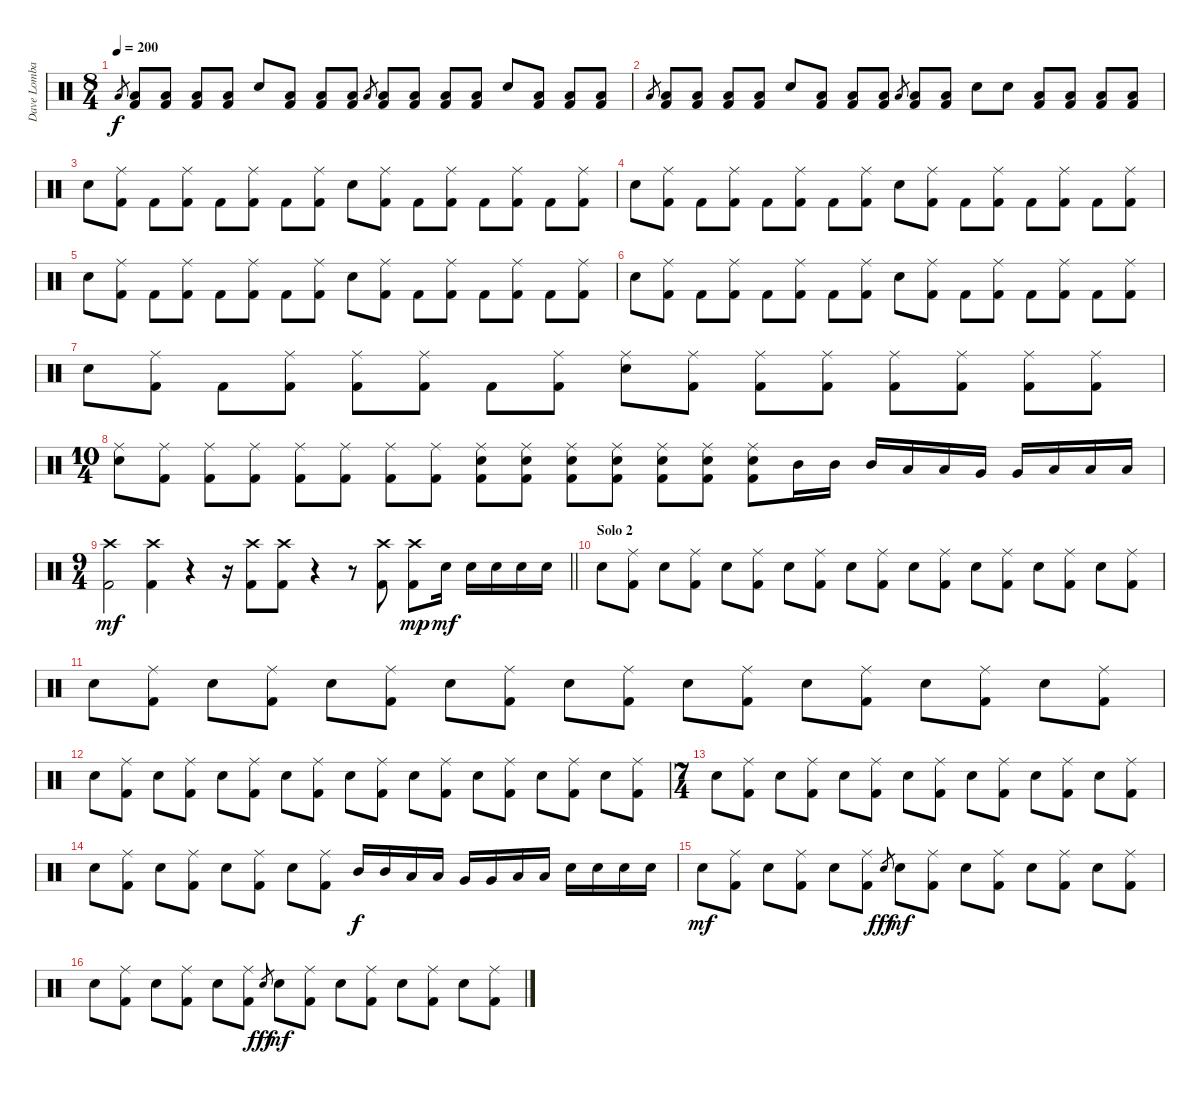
\track ("Dave Lombardo" "Dave Lomba") {instrument percussion}
\staff {score}
\articulation defaults
\ts (8 4)
\tempo 200
\clef neutral
\ks c "Low Floor Tom (hit)".8{gr dy f}
("Low Floor Tom (hit)" "Kick (hit) 2").8 ("Low Floor Tom (hit)" "Kick (hit) 2").8 ("Low Floor Tom (hit)" "Kick (hit) 2").8 ("Low Floor Tom (hit)" "Kick (hit) 2").8 "Electric Snare (hit)".8 ("Low Floor Tom (hit)" "Kick (hit) 2").8 ("Low Floor Tom (hit)" "Kick (hit) 2").8 ("Low Floor Tom (hit)" "Kick (hit) 2").8 "Low Floor Tom (hit)".8{gr} ("Low Floor Tom (hit)" "Kick (hit) 2").8 ("Low Floor Tom (hit)" "Kick (hit) 2").8 ("Low Floor Tom (hit)" "Kick (hit) 2").8 ("Low Floor Tom (hit)" "Kick (hit) 2").8 "Electric Snare (hit)".8 ("Low Floor Tom (hit)" "Kick (hit) 2").8 ("Low Floor Tom (hit)" "Kick (hit) 2").8 ("Low Floor Tom (hit)" "Kick (hit) 2").8 |
"Low Floor Tom (hit)".8{gr} ("Low Floor Tom (hit)" "Kick (hit) 2").8 ("Low Floor Tom (hit)" "Kick (hit) 2").8 ("Low Floor Tom (hit)" "Kick (hit) 2").8 ("Low Floor Tom (hit)" "Kick (hit) 2").8 "Electric Snare (hit)".8 ("Low Floor Tom (hit)" "Kick (hit) 2").8 ("Low Floor Tom (hit)" "Kick (hit) 2").8 ("Low Floor Tom (hit)" "Kick (hit) 2").8 "Low Floor Tom (hit)".8{gr} ("Low Floor Tom (hit)" "Kick (hit) 2").8 ("Low Floor Tom (hit)" "Kick (hit) 2").8 "Electric Snare (hit)".8 "Electric Snare (hit)".8 ("Low Floor Tom (hit)" "Kick (hit) 2").8 ("Low Floor Tom (hit)" "Kick (hit) 2").8 ("Low Floor Tom (hit)" "Kick (hit) 2").8 ("Low Floor Tom (hit)" "Kick (hit) 2").8 |
"Electric Snare (hit)".8 ("Ride (middle)" "Kick (hit) 2").8 "Kick (hit) 2".8 ("Ride (middle)" "Kick (hit) 2").8 "Kick (hit) 2".8 ("Ride (middle)" "Kick (hit) 2").8 "Kick (hit) 2".8 ("Ride (middle)" "Kick (hit) 2").8 "Electric Snare (hit)".8 ("Ride (middle)" "Kick (hit) 2").8 "Kick (hit) 2".8 ("Ride (middle)" "Kick (hit) 2").8 "Kick (hit) 2".8 ("Ride (middle)" "Kick (hit) 2").8 "Kick (hit) 2".8 ("Ride (middle)" "Kick (hit) 2").8 |
"Electric Snare (hit)".8 ("Ride (middle)" "Kick (hit) 2").8 "Kick (hit) 2".8 ("Ride (middle)" "Kick (hit) 2").8 "Kick (hit) 2".8 ("Ride (middle)" "Kick (hit) 2").8 "Kick (hit) 2".8 ("Ride (middle)" "Kick (hit) 2").8 "Electric Snare (hit)".8 ("Ride (middle)" "Kick (hit) 2").8 "Kick (hit) 2".8 ("Ride (middle)" "Kick (hit) 2").8 "Kick (hit) 2".8 ("Ride (middle)" "Kick (hit) 2").8 "Kick (hit) 2".8 ("Ride (middle)" "Kick (hit) 2").8 |
"Electric Snare (hit)".8 ("Ride (middle)" "Kick (hit) 2").8 "Kick (hit) 2".8 ("Ride (middle)" "Kick (hit) 2").8 "Kick (hit) 2".8 ("Ride (middle)" "Kick (hit) 2").8 "Kick (hit) 2".8 ("Ride (middle)" "Kick (hit) 2").8 "Electric Snare (hit)".8 ("Ride (middle)" "Kick (hit) 2").8 "Kick (hit) 2".8 ("Ride (middle)" "Kick (hit) 2").8 "Kick (hit) 2".8 ("Ride (middle)" "Kick (hit) 2").8 "Kick (hit) 2".8 ("Ride (middle)" "Kick (hit) 2").8 |
"Electric Snare (hit)".8 ("Ride (middle)" "Kick (hit) 2").8 "Kick (hit) 2".8 ("Ride (middle)" "Kick (hit) 2").8 "Kick (hit) 2".8 ("Ride (middle)" "Kick (hit) 2").8 "Kick (hit) 2".8 ("Ride (middle)" "Kick (hit) 2").8 "Electric Snare (hit)".8 ("Ride (middle)" "Kick (hit) 2").8 "Kick (hit) 2".8 ("Ride (middle)" "Kick (hit) 2").8 "Kick (hit) 2".8 ("Ride (middle)" "Kick (hit) 2").8 "Kick (hit) 2".8 ("Ride (middle)" "Kick (hit) 2").8 |
"Electric Snare (hit)".8 ("Ride (middle)" "Kick (hit) 2").8 "Kick (hit) 2".8 ("Ride (middle)" "Kick (hit) 2").8 ("Ride (middle)" "Kick (hit) 2").8 ("Ride (middle)" "Kick (hit) 2").8 "Kick (hit) 2".8 ("Ride (middle)" "Kick (hit) 2").8 ("Ride (middle)" "Electric Snare (hit)").8 ("Ride (middle)" "Kick (hit) 2").8 ("Ride (middle)" "Kick (hit) 2").8 ("Ride (middle)" "Kick (hit) 2").8 ("Ride (middle)" "Kick (hit) 2").8 ("Ride (middle)" "Kick (hit) 2").8 ("Ride (middle)" "Kick (hit) 2").8 ("Ride (middle)" "Kick (hit) 2").8 |
\ts (10 4)
("Ride (middle)" "Electric Snare (hit)").8 ("Ride (middle)" "Kick (hit) 2").8 ("Ride (middle)" "Kick (hit) 2").8 ("Ride (middle)" "Kick (hit) 2").8 ("Ride (middle)" "Kick (hit) 2").8 ("Ride (middle)" "Kick (hit) 2").8 ("Ride (middle)" "Kick (hit) 2").8 ("Ride (middle)" "Kick (hit) 2").8 ("Ride (middle)" "Electric Snare (hit)" "Kick (hit) 2").8 ("Ride (middle)" "Electric Snare (hit)" "Kick (hit) 2").8 ("Ride (middle)" "Electric Snare (hit)" "Kick (hit) 2").8 ("Ride (middle)" "Electric Snare (hit)" "Kick (hit) 2").8 ("Ride (middle)" "Electric Snare (hit)" "Kick (hit) 2").8 ("Ride (middle)" "Electric Snare (hit)" "Kick (hit) 2").8 ("Ride (middle)" "Electric Snare (hit)" "Kick (hit) 2").8 "Mid Tom (hit)".16 "Mid Tom (hit)".16 "Mid Tom (hit)".16 "Low Tom (hit)".16 "Low Tom (hit)".16 "Very Low Tom (hit)".16 "Very Low Tom (hit)".16 "Low Floor Tom (hit)".16 "Low Floor Tom (hit)".16 "Low Floor Tom (hit)".16 |
\ts (9 4)
\barLineRight lightlight
("Crash high (hit)" "Kick (hit) 2").2{dy mf} ("Crash high (hit)" "Kick (hit) 2").4 r.4 r.16 ("Crash high (hit)" "Kick (hit) 2").8 ("Crash high (hit)" "Kick (hit) 2").8 r.4 r.8 ("Crash high (hit)" "Kick (hit) 2").8 ("Crash high (hit)" "Kick (hit) 2").8{dy mp} "Snare (hit) 2".16{dy mf} "Snare (hit) 2".16 "Snare (hit) 2".16 "Snare (hit) 2".16 "Snare (hit) 2".16 |
\section ("" "Solo 2")
"Snare (hit) 2".8 ("Ride (middle)" "Kick (hit) 2").8 "Snare (hit) 2".8 ("Ride (middle)" "Kick (hit) 2").8 "Snare (hit) 2".8 ("Ride (middle)" "Kick (hit) 2").8 "Snare (hit) 2".8 ("Ride (middle)" "Kick (hit) 2").8 "Snare (hit) 2".8 ("Ride (middle)" "Kick (hit) 2").8 "Snare (hit) 2".8 ("Ride (middle)" "Kick (hit) 2").8 "Snare (hit) 2".8 ("Ride (middle)" "Kick (hit) 2").8 "Snare (hit) 2".8 ("Ride (middle)" "Kick (hit) 2").8 "Snare (hit) 2".8 ("Ride (middle)" "Kick (hit) 2").8 |
"Snare (hit) 2".8 ("Ride (middle)" "Kick (hit) 2").8 "Snare (hit) 2".8 ("Ride (middle)" "Kick (hit) 2").8 "Snare (hit) 2".8 ("Ride (middle)" "Kick (hit) 2").8 "Snare (hit) 2".8 ("Ride (middle)" "Kick (hit) 2").8 "Snare (hit) 2".8 ("Ride (middle)" "Kick (hit) 2").8 "Snare (hit) 2".8 ("Ride (middle)" "Kick (hit) 2").8 "Snare (hit) 2".8 ("Ride (middle)" "Kick (hit) 2").8 "Snare (hit) 2".8 ("Ride (middle)" "Kick (hit) 2").8 "Snare (hit) 2".8 ("Ride (middle)" "Kick (hit) 2").8 |
"Snare (hit) 2".8 ("Ride (middle)" "Kick (hit) 2").8 "Snare (hit) 2".8 ("Ride (middle)" "Kick (hit) 2").8 "Snare (hit) 2".8 ("Ride (middle)" "Kick (hit) 2").8 "Snare (hit) 2".8 ("Ride (middle)" "Kick (hit) 2").8 "Snare (hit) 2".8 ("Ride (middle)" "Kick (hit) 2").8 "Snare (hit) 2".8 ("Ride (middle)" "Kick (hit) 2").8 "Snare (hit) 2".8 ("Ride (middle)" "Kick (hit) 2").8 "Snare (hit) 2".8 ("Ride (middle)" "Kick (hit) 2").8 "Snare (hit) 2".8 ("Ride (middle)" "Kick (hit) 2").8 |
\ts (7 4)
"Snare (hit) 2".8 ("Ride (middle)" "Kick (hit) 2").8 "Snare (hit) 2".8 ("Ride (middle)" "Kick (hit) 2").8 "Snare (hit) 2".8 ("Ride (middle)" "Kick (hit) 2").8 "Snare (hit) 2".8 ("Ride (middle)" "Kick (hit) 2").8 "Snare (hit) 2".8 ("Ride (middle)" "Kick (hit) 2").8 "Snare (hit) 2".8 ("Ride (middle)" "Kick (hit) 2").8 "Snare (hit) 2".8 ("Ride (middle)" "Kick (hit) 2").8 |
"Snare (hit) 2".8 ("Ride (middle)" "Kick (hit) 2").8 "Snare (hit) 2".8 ("Ride (middle)" "Kick (hit) 2").8 "Snare (hit) 2".8 ("Ride (middle)" "Kick (hit) 2").8 "Snare (hit) 2".8 ("Ride (middle)" "Kick (hit) 2").8 "Mid Tom (hit)".16{dy f} "Mid Tom (hit)".16 "Low Tom (hit)".16 "Low Tom (hit)".16 "Very Low Tom (hit)".16 "Very Low Tom (hit)".16 "Low Floor Tom (hit)".16 "Low Floor Tom (hit)".16 "Electric Snare (hit)".16 "Electric Snare (hit)".16 "Snare (hit) 2".16 "Snare (hit) 2".16 |
"Snare (hit) 2".8{dy mf} ("Ride (middle)" "Kick (hit) 2").8 "Snare (hit) 2".8 ("Ride (middle)" "Kick (hit) 2").8 "Snare (hit) 2".8 ("Ride (middle)" "Kick (hit) 2").8 "Snare (hit) 2"{h}.8{gr dy fff} "Snare (hit) 2".8{dy mf} ("Ride (middle)" "Kick (hit) 2").8 "Snare (hit) 2".8 ("Ride (middle)" "Kick (hit) 2").8 "Snare (hit) 2".8 ("Ride (middle)" "Kick (hit) 2").8 "Snare (hit) 2".8 ("Ride (middle)" "Kick (hit) 2").8 |
"Snare (hit) 2".8 ("Ride (middle)" "Kick (hit) 2").8 "Snare (hit) 2".8 ("Ride (middle)" "Kick (hit) 2").8 "Snare (hit) 2".8 ("Ride (middle)" "Kick (hit) 2").8 "Snare (hit) 2".8{gr dy fff} "Snare (hit) 2".8{dy mf} ("Ride (middle)" "Kick (hit) 2").8 "Snare (hit) 2".8 ("Ride (middle)" "Kick (hit) 2").8 "Snare (hit) 2".8 ("Ride (middle)" "Kick (hit) 2").8 "Snare (hit) 2".8 ("Ride (middle)" "Kick (hit) 2").8
